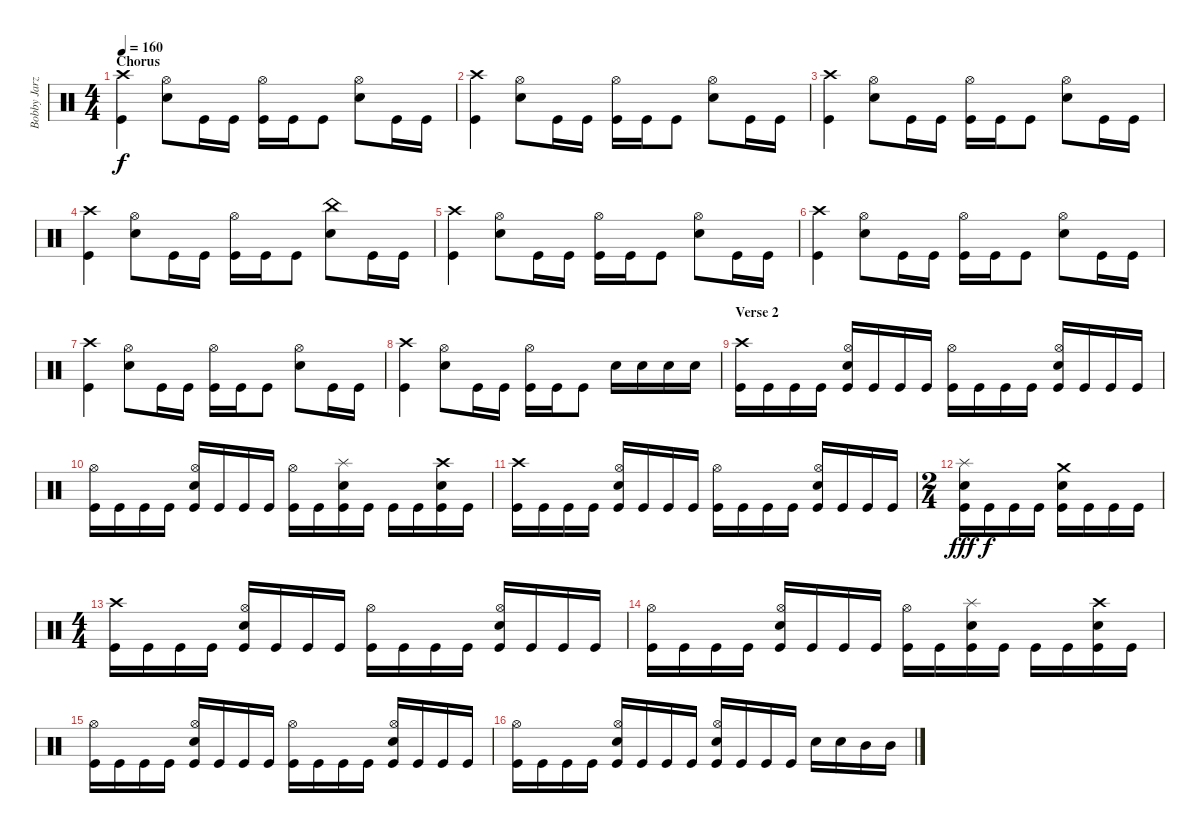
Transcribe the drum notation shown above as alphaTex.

\track ("Bobby Jarzombek" "Bobby Jarz") {instrument percussion}
\staff {score}
\articulation defaults
\ts (4 4)
\section ("" "Chorus")
\tempo 160
\clef neutral
\ks c
("Crash high (hit)" "Kick (hit)").4{dy f} ("Hi-Hat (open)" "Electric Snare (hit)").8 "Kick (hit)".16 "Kick (hit)".16 ("Hi-Hat (open)" "Kick (hit)").16 "Kick (hit)".16 "Kick (hit)".8 ("Hi-Hat (open)" "Electric Snare (hit)").8 "Kick (hit)".16 "Kick (hit)".16 |
("Crash high (hit)" "Kick (hit)").4 ("Hi-Hat (open)" "Electric Snare (hit)").8 "Kick (hit)".16 "Kick (hit)".16 ("Hi-Hat (open)" "Kick (hit)").16 "Kick (hit)".16 "Kick (hit)".8 ("Hi-Hat (open)" "Electric Snare (hit)").8 "Kick (hit)".16 "Kick (hit)".16 |
("Crash high (hit)" "Kick (hit)").4 ("Hi-Hat (open)" "Electric Snare (hit)").8 "Kick (hit)".16 "Kick (hit)".16 ("Hi-Hat (open)" "Kick (hit)").16 "Kick (hit)".16 "Kick (hit)".8 ("Hi-Hat (open)" "Electric Snare (hit)").8 "Kick (hit)".16 "Kick (hit)".16 |
("Crash high (hit)" "Kick (hit)").4 ("Hi-Hat (open)" "Electric Snare (hit)").8 "Kick (hit)".16 "Kick (hit)".16 ("Hi-Hat (open)" "Kick (hit)").16 "Kick (hit)".16 "Kick (hit)".8 ("China (hit)" "Electric Snare (hit)").8 "Kick (hit)".16 "Kick (hit)".16 |
("Crash high (hit)" "Kick (hit)").4 ("Hi-Hat (open)" "Electric Snare (hit)").8 "Kick (hit)".16 "Kick (hit)".16 ("Hi-Hat (open)" "Kick (hit)").16 "Kick (hit)".16 "Kick (hit)".8 ("Hi-Hat (open)" "Electric Snare (hit)").8 "Kick (hit)".16 "Kick (hit)".16 |
("Crash high (hit)" "Kick (hit)").4 ("Hi-Hat (open)" "Electric Snare (hit)").8 "Kick (hit)".16 "Kick (hit)".16 ("Hi-Hat (open)" "Kick (hit)").16 "Kick (hit)".16 "Kick (hit)".8 ("Hi-Hat (open)" "Electric Snare (hit)").8 "Kick (hit)".16 "Kick (hit)".16 |
("Crash high (hit)" "Kick (hit)").4 ("Hi-Hat (open)" "Electric Snare (hit)").8 "Kick (hit)".16 "Kick (hit)".16 ("Hi-Hat (open)" "Kick (hit)").16 "Kick (hit)".16 "Kick (hit)".8 ("Hi-Hat (open)" "Electric Snare (hit)").8 "Kick (hit)".16 "Kick (hit)".16 |
("Crash high (hit)" "Kick (hit)").4 ("Hi-Hat (open)" "Electric Snare (hit)").8 "Kick (hit)".16 "Kick (hit)".16 ("Hi-Hat (open)" "Kick (hit)").16 "Kick (hit)".16 "Kick (hit)".8 "Electric Snare (hit)".16 "Electric Snare (hit)".16 "Electric Snare (hit)".16 "Electric Snare (hit)".16 |
\section ("" "Verse 2")
("Crash high (hit)" "Kick (hit)").16 "Kick (hit)".16 "Kick (hit)".16 "Kick (hit)".16 ("Hi-Hat (open)" "Electric Snare (hit)" "Kick (hit)").16 "Kick (hit)".16 "Kick (hit)".16 "Kick (hit)".16 ("Hi-Hat (open)" "Kick (hit)").16 "Kick (hit)".16 "Kick (hit)".16 "Kick (hit)".16 ("Hi-Hat (open)" "Electric Snare (hit)" "Kick (hit)").16 "Kick (hit)".16 "Kick (hit)".16 "Kick (hit)".16 |
("Hi-Hat (open)" "Kick (hit)").16 "Kick (hit)".16 "Kick (hit)".16 "Kick (hit)".16 ("Hi-Hat (open)" "Electric Snare (hit)" "Kick (hit)").16 "Kick (hit)".16 "Kick (hit)".16 "Kick (hit)".16 ("Hi-Hat (open)" "Kick (hit)").16 "Kick (hit)".16 ("Splash (hit)" "Electric Snare (hit)" "Kick (hit)").16 "Kick (hit)".16 "Kick (hit)".16 "Kick (hit)".16 ("Crash high (hit)" "Electric Snare (hit)" "Kick (hit)").16 "Kick (hit)".16 |
("Crash high (hit)" "Kick (hit)").16 "Kick (hit)".16 "Kick (hit)".16 "Kick (hit)".16 ("Hi-Hat (open)" "Electric Snare (hit)" "Kick (hit)").16 "Kick (hit)".16 "Kick (hit)".16 "Kick (hit)".16 ("Hi-Hat (open)" "Kick (hit)").16 "Kick (hit)".16 "Kick (hit)".16 "Kick (hit)".16 ("Hi-Hat (open)" "Electric Snare (hit)" "Kick (hit)").16 "Kick (hit)".16 "Kick (hit)".16 "Kick (hit)".16 |
\ts (2 4)
("Splash (hit)" "Electric Snare (hit)" "Kick (hit)").16{dy fff} "Kick (hit)".16{dy f} "Kick (hit)".16 "Kick (hit)".16 ("Crash medium (hit)" "Electric Snare (hit)" "Kick (hit)").16 "Kick (hit)".16 "Kick (hit)".16 "Kick (hit)".16 |
\ts (4 4)
("Crash high (hit)" "Kick (hit)").16 "Kick (hit)".16 "Kick (hit)".16 "Kick (hit)".16 ("Hi-Hat (open)" "Electric Snare (hit)" "Kick (hit)").16 "Kick (hit)".16 "Kick (hit)".16 "Kick (hit)".16 ("Hi-Hat (open)" "Kick (hit)").16 "Kick (hit)".16 "Kick (hit)".16 "Kick (hit)".16 ("Hi-Hat (open)" "Electric Snare (hit)" "Kick (hit)").16 "Kick (hit)".16 "Kick (hit)".16 "Kick (hit)".16 |
("Hi-Hat (open)" "Kick (hit)").16 "Kick (hit)".16 "Kick (hit)".16 "Kick (hit)".16 ("Hi-Hat (open)" "Electric Snare (hit)" "Kick (hit)").16 "Kick (hit)".16 "Kick (hit)".16 "Kick (hit)".16 ("Hi-Hat (open)" "Kick (hit)").16 "Kick (hit)".16 ("Splash (hit)" "Electric Snare (hit)" "Kick (hit)").16 "Kick (hit)".16 "Kick (hit)".16 "Kick (hit)".16 ("Crash high (hit)" "Electric Snare (hit)" "Kick (hit)").16 "Kick (hit)".16 |
("Hi-Hat (open)" "Kick (hit)").16 "Kick (hit)".16 "Kick (hit)".16 "Kick (hit)".16 ("Hi-Hat (open)" "Electric Snare (hit)" "Kick (hit)").16 "Kick (hit)".16 "Kick (hit)".16 "Kick (hit)".16 ("Hi-Hat (open)" "Kick (hit)").16 "Kick (hit)".16 "Kick (hit)".16 "Kick (hit)".16 ("Hi-Hat (open)" "Electric Snare (hit)" "Kick (hit)").16 "Kick (hit)".16 "Kick (hit)".16 "Kick (hit)".16 |
("Hi-Hat (open)" "Kick (hit)").16 "Kick (hit)".16 "Kick (hit)".16 "Kick (hit)".16 ("Hi-Hat (open)" "Electric Snare (hit)" "Kick (hit)").16 "Kick (hit)".16 "Kick (hit)".16 "Kick (hit)".16 ("Hi-Hat (open)" "Electric Snare (hit)" "Kick (hit)").16 "Kick (hit)".16 "Kick (hit)".16 "Kick (hit)".16 "Electric Snare (hit)".16 "Electric Snare (hit)".16 "Mid Tom (hit)".16 "Mid Tom (hit)".16
